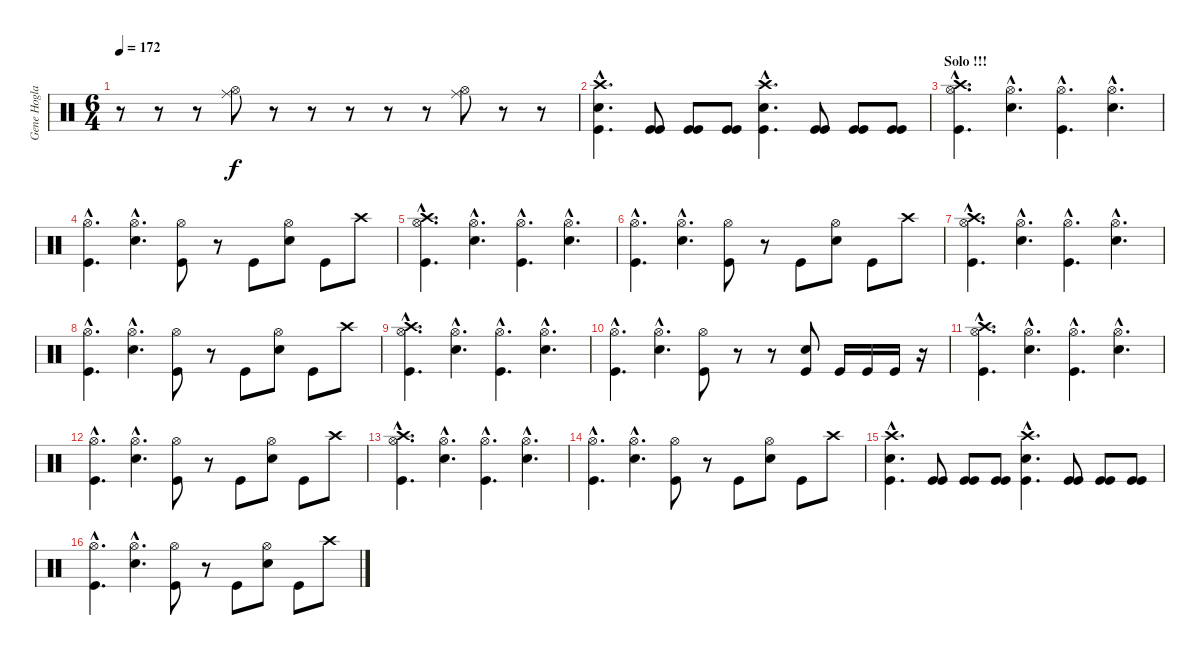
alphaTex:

\track ("Gene Hoglan" "Gene Hogla") {instrument percussion}
\staff {score}
\articulation defaults
\ts (6 4)
\tempo 172
\clef neutral
\ks c
r.8{dy f} r.8 r.8 ("Hi-Hat (open)" "Ride (middle)").8 r.8 r.8 r.8 r.8 r.8 ("Ride (middle)" "Hi-Hat (open)").8 r.8 r.8 |
("Crash high (hit)"{hac} "Snare (hit) 2"{hac} "Kick (hit)"{hac}).4{d} ("Kick (hit)" "Kick (hit)").8 ("Kick (hit)" "Kick (hit)").8 ("Kick (hit)" "Kick (hit)").8 ("Crash high (hit)"{hac} "Snare (hit) 2"{hac} "Kick (hit)"{hac}).4{d} ("Kick (hit)" "Kick (hit)").8 ("Kick (hit)" "Kick (hit)").8 ("Kick (hit)" "Kick (hit)").8 |
\section ("" "Solo !!!")
("Crash high (hit)"{hac} "Hi-Hat (open)"{hac} "Kick (hit)"{hac}).4{d} ("Hi-Hat (open)"{hac} "Snare (hit) 2"{hac}).4{d} ("Hi-Hat (open)"{hac} "Kick (hit)"{hac}).4{d} ("Hi-Hat (open)"{hac} "Snare (hit) 2"{hac}).4{d} |
("Hi-Hat (open)"{hac} "Kick (hit)"{hac}).4{d} ("Hi-Hat (open)"{hac} "Snare (hit) 2"{hac}).4{d} ("Hi-Hat (open)" "Kick (hit)").8 r.8 "Kick (hit)".8 ("Hi-Hat (open)" "Snare (hit) 2").8 "Kick (hit)".8 "Crash high (hit)".8 |
("Crash high (hit)"{hac} "Hi-Hat (open)"{hac} "Kick (hit)"{hac}).4{d} ("Hi-Hat (open)"{hac} "Snare (hit) 2"{hac}).4{d} ("Hi-Hat (open)"{hac} "Kick (hit)"{hac}).4{d} ("Hi-Hat (open)"{hac} "Snare (hit) 2"{hac}).4{d} |
("Hi-Hat (open)"{hac} "Kick (hit)"{hac}).4{d} ("Hi-Hat (open)"{hac} "Snare (hit) 2"{hac}).4{d} ("Hi-Hat (open)" "Kick (hit)").8 r.8 "Kick (hit)".8 ("Hi-Hat (open)" "Snare (hit) 2").8 "Kick (hit)".8 "Crash high (hit)".8 |
("Crash high (hit)"{hac} "Hi-Hat (open)"{hac} "Kick (hit)"{hac}).4{d} ("Hi-Hat (open)"{hac} "Snare (hit) 2"{hac}).4{d} ("Hi-Hat (open)"{hac} "Kick (hit)"{hac}).4{d} ("Hi-Hat (open)"{hac} "Snare (hit) 2"{hac}).4{d} |
("Hi-Hat (open)"{hac} "Kick (hit)"{hac}).4{d} ("Hi-Hat (open)"{hac} "Snare (hit) 2"{hac}).4{d} ("Hi-Hat (open)" "Kick (hit)").8 r.8 "Kick (hit)".8 ("Hi-Hat (open)" "Snare (hit) 2").8 "Kick (hit)".8 "Crash high (hit)".8 |
("Crash high (hit)"{hac} "Hi-Hat (open)"{hac} "Kick (hit)"{hac}).4{d} ("Hi-Hat (open)"{hac} "Snare (hit) 2"{hac}).4{d} ("Hi-Hat (open)"{hac} "Kick (hit)"{hac}).4{d} ("Hi-Hat (open)"{hac} "Snare (hit) 2"{hac}).4{d} |
("Hi-Hat (open)"{hac} "Kick (hit)"{hac}).4{d} ("Hi-Hat (open)"{hac} "Snare (hit) 2"{hac}).4{d} ("Hi-Hat (open)" "Kick (hit)").8 r.8 r.8 ("Snare (hit) 2" "Kick (hit)").8 "Kick (hit)".16 "Kick (hit)".16 "Kick (hit)".16 r.16 |
("Crash high (hit)"{hac} "Hi-Hat (open)"{hac} "Kick (hit)"{hac}).4{d} ("Hi-Hat (open)"{hac} "Snare (hit) 2"{hac}).4{d} ("Hi-Hat (open)"{hac} "Kick (hit)"{hac}).4{d} ("Hi-Hat (open)"{hac} "Snare (hit) 2"{hac}).4{d} |
("Hi-Hat (open)"{hac} "Kick (hit)"{hac}).4{d} ("Hi-Hat (open)"{hac} "Snare (hit) 2"{hac}).4{d} ("Hi-Hat (open)" "Kick (hit)").8 r.8 "Kick (hit)".8 ("Hi-Hat (open)" "Snare (hit) 2").8 "Kick (hit)".8 "Crash high (hit)".8 |
("Crash high (hit)"{hac} "Hi-Hat (open)"{hac} "Kick (hit)"{hac}).4{d} ("Hi-Hat (open)"{hac} "Snare (hit) 2"{hac}).4{d} ("Hi-Hat (open)"{hac} "Kick (hit)"{hac}).4{d} ("Hi-Hat (open)"{hac} "Snare (hit) 2"{hac}).4{d} |
("Hi-Hat (open)"{hac} "Kick (hit)"{hac}).4{d} ("Hi-Hat (open)"{hac} "Snare (hit) 2"{hac}).4{d} ("Hi-Hat (open)" "Kick (hit)").8 r.8 "Kick (hit)".8 ("Hi-Hat (open)" "Snare (hit) 2").8 "Kick (hit)".8 "Crash high (hit)".8 |
("Crash high (hit)"{hac} "Snare (hit) 2"{hac} "Kick (hit)"{hac}).4{d} ("Kick (hit)" "Kick (hit)").8 ("Kick (hit)" "Kick (hit)").8 ("Kick (hit)" "Kick (hit)").8 ("Crash high (hit)"{hac} "Snare (hit) 2"{hac} "Kick (hit)"{hac}).4{d} ("Kick (hit)" "Kick (hit)").8 ("Kick (hit)" "Kick (hit)").8 ("Kick (hit)" "Kick (hit)").8 |
("Hi-Hat (open)"{hac} "Kick (hit)"{hac}).4{d} ("Hi-Hat (open)"{hac} "Snare (hit) 2"{hac}).4{d} ("Hi-Hat (open)" "Kick (hit)").8 r.8 "Kick (hit)".8 ("Hi-Hat (open)" "Snare (hit) 2").8 "Kick (hit)".8 "Crash high (hit)".8
